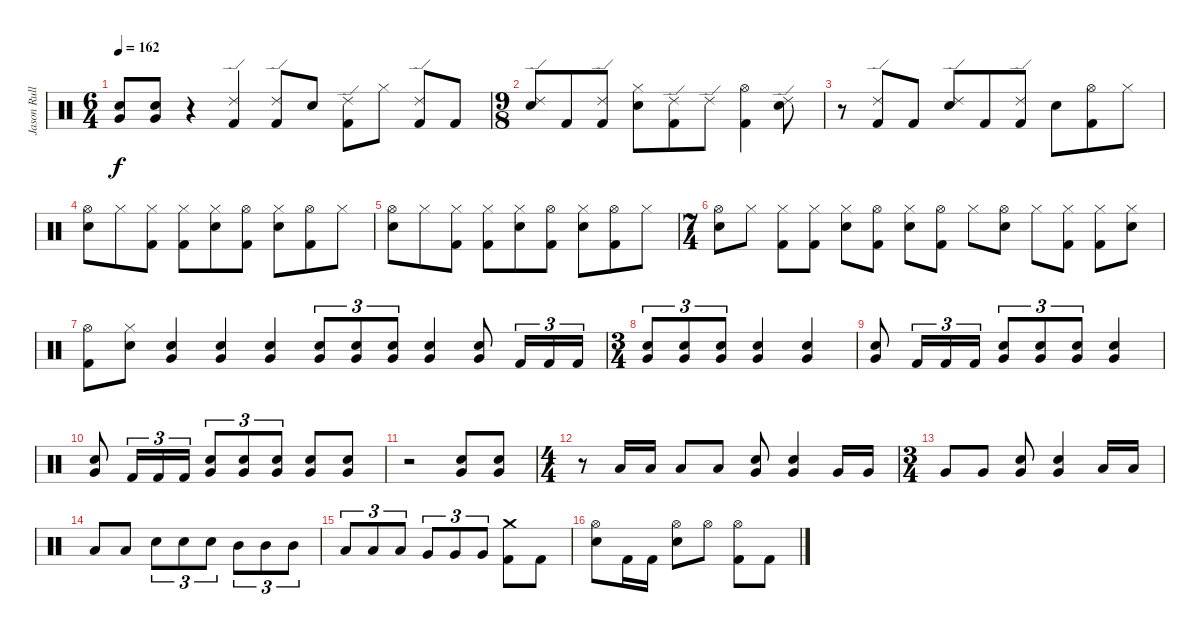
\track ("Jason Rullo" "Jason Rull") {instrument percussion}
\staff {score}
\articulation defaults
\ts (6 4)
\tempo 162
\clef neutral
\ks c
("Very Low Tom (hit)" "Electric Snare (hit)").8{dy f} ("Very Low Tom (hit)" "Electric Snare (hit)").8 r.4 ("Ride (edge) 2" "Kick (hit) 2").4 ("Ride (edge) 2" "Kick (hit) 2").8 "Electric Snare (hit)".8 ("Ride (edge) 2" "Kick (hit) 2").8 "Hi-Hat (closed)".8 ("Ride (edge) 2" "Kick (hit) 2").8 "Kick (hit) 2".8 |
\ts (9 8)
("Ride (edge) 2" "Electric Snare (hit)").8 "Kick (hit) 2".8 ("Ride (edge) 2" "Kick (hit) 2").8 ("Hi-Hat (closed)" "Electric Snare (hit)").8 ("Ride (edge) 2" "Kick (hit) 2").8 "Ride (edge) 2".8 ("Hi-Hat (open)" "Kick (hit) 2").4 ("Ride (edge) 2" "Electric Snare (hit)").8 |
r.8 ("Ride (edge) 2" "Kick (hit) 2").8 "Kick (hit) 2".8 ("Ride (edge) 2" "Electric Snare (hit)").8 "Kick (hit) 2".8 ("Ride (edge) 2" "Kick (hit) 2").8 "Electric Snare (hit)".8 ("Hi-Hat (open)" "Kick (hit) 2").8 "Hi-Hat (closed)".8 |
("Hi-Hat (open)" "Electric Snare (hit)").8 "Hi-Hat (closed)".8 ("Hi-Hat (closed)" "Kick (hit) 2").8 ("Hi-Hat (closed)" "Kick (hit) 2").8 ("Hi-Hat (closed)" "Electric Snare (hit)").8 ("Hi-Hat (open)" "Kick (hit) 2").8 ("Hi-Hat (closed)" "Electric Snare (hit)").8 ("Hi-Hat (open)" "Kick (hit) 2").8 "Hi-Hat (closed)".8 |
("Hi-Hat (open)" "Electric Snare (hit)").8 "Hi-Hat (closed)".8 ("Hi-Hat (closed)" "Kick (hit) 2").8 ("Hi-Hat (closed)" "Kick (hit) 2").8 ("Hi-Hat (closed)" "Electric Snare (hit)").8 ("Hi-Hat (open)" "Kick (hit) 2").8 ("Hi-Hat (closed)" "Electric Snare (hit)").8 ("Hi-Hat (open)" "Kick (hit) 2").8 "Hi-Hat (closed)".8 |
\ts (7 4)
("Hi-Hat (open)" "Electric Snare (hit)").8 "Hi-Hat (closed)".8 ("Hi-Hat (closed)" "Kick (hit) 2").8 ("Hi-Hat (closed)" "Kick (hit) 2").8 ("Hi-Hat (closed)" "Electric Snare (hit)").8 ("Hi-Hat (open)" "Kick (hit) 2").8 ("Hi-Hat (closed)" "Electric Snare (hit)").8 ("Hi-Hat (open)" "Kick (hit) 2").8 "Hi-Hat (closed)".8 ("Hi-Hat (open)" "Electric Snare (hit)").8 "Hi-Hat (closed)".8 ("Hi-Hat (closed)" "Kick (hit) 2").8 ("Hi-Hat (closed)" "Kick (hit) 2").8 ("Hi-Hat (closed)" "Electric Snare (hit)").8 |
("Hi-Hat (open)" "Kick (hit) 2").8 ("Hi-Hat (closed)" "Electric Snare (hit)").8 ("Very Low Tom (hit)" "Electric Snare (hit)").4 ("Electric Snare (hit)" "Very Low Tom (hit)").4 ("Electric Snare (hit)" "Very Low Tom (hit)").4 ("Very Low Tom (hit)" "Electric Snare (hit)").8{tu (3 2)} ("Very Low Tom (hit)" "Electric Snare (hit)").8{tu (3 2)} ("Very Low Tom (hit)" "Electric Snare (hit)").8{tu (3 2)} ("Electric Snare (hit)" "Very Low Tom (hit)").4 ("Electric Snare (hit)" "Very Low Tom (hit)").8 "Kick (hit) 2".16{tu (3 2)} "Kick (hit) 2".16{tu (3 2)} "Kick (hit) 2".16{tu (3 2)} |
\ts (3 4)
("Very Low Tom (hit)" "Electric Snare (hit)").8{tu (3 2)} ("Very Low Tom (hit)" "Electric Snare (hit)").8{tu (3 2)} ("Very Low Tom (hit)" "Electric Snare (hit)").8{tu (3 2)} ("Very Low Tom (hit)" "Electric Snare (hit)").4 ("Electric Snare (hit)" "Very Low Tom (hit)").4 |
("Electric Snare (hit)" "Very Low Tom (hit)").8 "Kick (hit) 2".16{tu (3 2)} "Kick (hit) 2".16{tu (3 2)} "Kick (hit) 2".16{tu (3 2)} ("Very Low Tom (hit)" "Electric Snare (hit)").8{tu (3 2)} ("Very Low Tom (hit)" "Electric Snare (hit)").8{tu (3 2)} ("Very Low Tom (hit)" "Electric Snare (hit)").8{tu (3 2)} ("Electric Snare (hit)" "Very Low Tom (hit)").4 |
("Electric Snare (hit)" "Very Low Tom (hit)").8 "Kick (hit) 2".16{tu (3 2)} "Kick (hit) 2".16{tu (3 2)} "Kick (hit) 2".16{tu (3 2)} ("Very Low Tom (hit)" "Electric Snare (hit)").8{tu (3 2)} ("Very Low Tom (hit)" "Electric Snare (hit)").8{tu (3 2)} ("Very Low Tom (hit)" "Electric Snare (hit)").8{tu (3 2)} ("Very Low Tom (hit)" "Electric Snare (hit)").8 ("Very Low Tom (hit)" "Electric Snare (hit)").8 |
r.2 ("Very Low Tom (hit)" "Electric Snare (hit)").8 ("Very Low Tom (hit)" "Electric Snare (hit)").8 |
\ts (4 4)
r.8 "Low Tom (hit)".16 "Low Tom (hit)".16 "Low Tom (hit)".8 "Low Tom (hit)".8 ("Very Low Tom (hit)" "Electric Snare (hit)").8 ("Very Low Tom (hit)" "Electric Snare (hit)").4 "Very Low Tom (hit)".16 "Very Low Tom (hit)".16 |
\ts (3 4)
"Very Low Tom (hit)".8 "Very Low Tom (hit)".8 ("Very Low Tom (hit)" "Electric Snare (hit)").8 ("Very Low Tom (hit)" "Electric Snare (hit)").4 "Low Floor Tom (hit)".16 "Low Floor Tom (hit)".16 |
"Low Floor Tom (hit)".8 "Low Floor Tom (hit)".8 "Electric Snare (hit)".8{tu (3 2)} "Electric Snare (hit)".8{tu (3 2)} "Electric Snare (hit)".8{tu (3 2)} "Mid Tom (hit)".8{tu (3 2)} "Mid Tom (hit)".8{tu (3 2)} "Mid Tom (hit)".8{tu (3 2)} |
"Low Tom (hit)".8{tu (3 2)} "Low Tom (hit)".8{tu (3 2)} "Low Tom (hit)".8{tu (3 2)} "Very Low Tom (hit)".8{tu (3 2)} "Very Low Tom (hit)".8{tu (3 2)} "Very Low Tom (hit)".8{tu (3 2)} ("Crash medium (hit)" "Kick (hit) 2").8 "Kick (hit) 2".8 |
("Hi-Hat (open)" "Electric Snare (hit)").8 "Kick (hit) 2".16 "Kick (hit) 2".16 ("Hi-Hat (open)" "Electric Snare (hit)").8 "Hi-Hat (open)".8 ("Hi-Hat (open)" "Kick (hit) 2").8 "Kick (hit) 2".8
